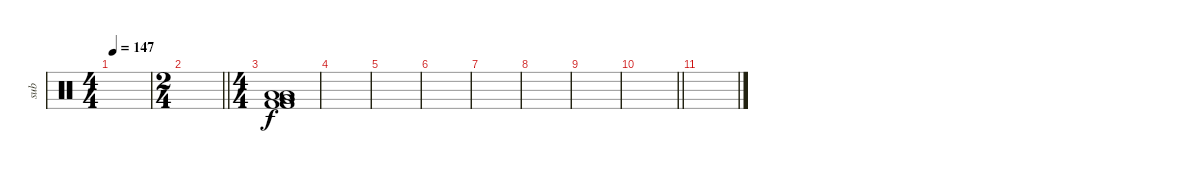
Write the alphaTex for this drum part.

\track ("sub" "sub") {instrument percussion}
\staff {score}
\articulation defaults
\ts (4 4)
\tempo 147
\clef neutral
\ks c
|
\ts (2 4)
\barLineRight lightlight
|
\ts (4 4)
\section ("" "")
("Low Floor Tom (hit)" "Low Floor Tom (hit)" "Very Low Tom (hit)" "Very Low Tom (hit)" "Kick (hit) 2" "Kick (hit) 2").1 |
|
|
|
|
|
|
\barLineRight lightlight
|
\section ("" "")
